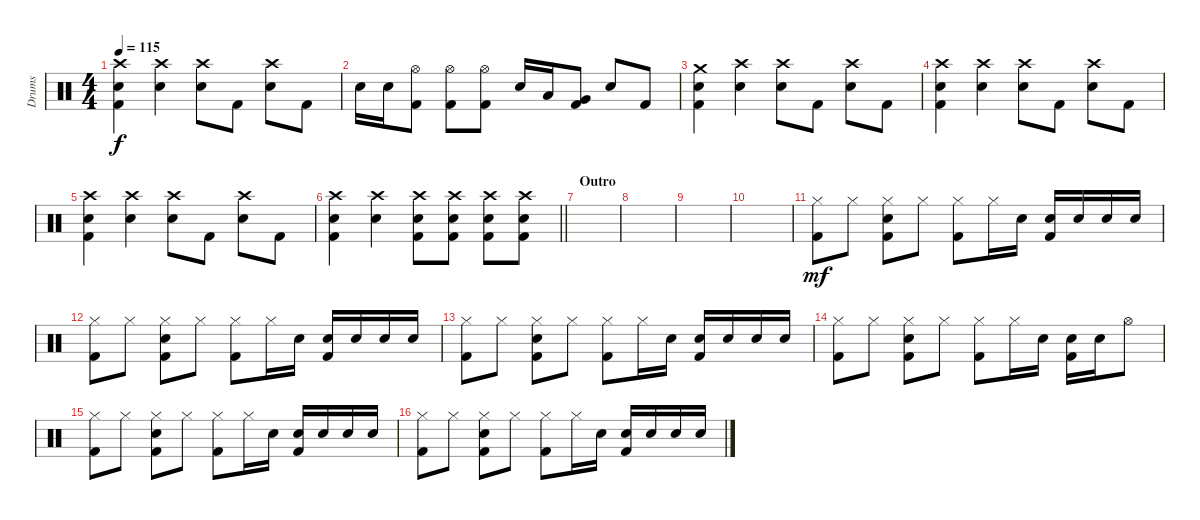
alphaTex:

\track ("Drums" "Drums") {instrument percussion}
\staff {score}
\articulation defaults
\ts (4 4)
\tempo 115
\clef neutral
\ks c
("Crash high (hit)" "Electric Snare (hit)" "Kick (hit) 2").4{dy f} ("Crash high (hit)" "Electric Snare (hit)").4 ("Crash high (hit)" "Electric Snare (hit)").8 "Kick (hit) 2".8 ("Crash high (hit)" "Electric Snare (hit)").8 "Kick (hit) 2".8 |
"Electric Snare (hit)".16 "Electric Snare (hit)".16 ("Hi-Hat (open)" "Kick (hit) 2").8 ("Hi-Hat (open)" "Kick (hit) 2").8 ("Hi-Hat (open)" "Kick (hit) 2").8 "Electric Snare (hit)".16 "Low Tom (hit)".16 ("Very Low Tom (hit)" "Kick (hit) 2").8 "Electric Snare (hit)".8 "Kick (hit) 2".8 |
("Crash medium (hit)" "Electric Snare (hit)" "Kick (hit) 2").4 ("Crash high (hit)" "Electric Snare (hit)").4 ("Crash high (hit)" "Electric Snare (hit)").8 "Kick (hit) 2".8 ("Crash high (hit)" "Electric Snare (hit)").8 "Kick (hit) 2".8 |
("Crash high (hit)" "Electric Snare (hit)" "Kick (hit) 2").4 ("Crash high (hit)" "Electric Snare (hit)").4 ("Crash high (hit)" "Electric Snare (hit)").8 "Kick (hit) 2".8 ("Crash high (hit)" "Electric Snare (hit)").8 "Kick (hit) 2".8 |
("Crash high (hit)" "Electric Snare (hit)" "Kick (hit) 2").4 ("Crash high (hit)" "Electric Snare (hit)").4 ("Crash high (hit)" "Electric Snare (hit)").8 "Kick (hit) 2".8 ("Crash high (hit)" "Electric Snare (hit)").8 "Kick (hit) 2".8 |
\barLineRight lightlight
("Crash high (hit)" "Electric Snare (hit)" "Kick (hit) 2").4 ("Crash high (hit)" "Electric Snare (hit)").4 ("Crash high (hit)" "Electric Snare (hit)" "Kick (hit) 2").8 ("Crash high (hit)" "Electric Snare (hit)" "Kick (hit) 2").8 ("Crash high (hit)" "Electric Snare (hit)" "Kick (hit) 2").8 ("Crash high (hit)" "Electric Snare (hit)" "Kick (hit) 2").8 |
\section ("" "Outro")
|
|
|
|
("Hi-Hat (closed)" "Kick (hit) 2").8{dy mf} "Hi-Hat (closed)".8 ("Hi-Hat (closed)" "Electric Snare (hit)" "Kick (hit) 2").8 "Hi-Hat (closed)".8 ("Hi-Hat (closed)" "Kick (hit) 2").8 "Hi-Hat (closed)".16 "Electric Snare (hit)".16 ("Electric Snare (hit)" "Kick (hit) 2").16 "Electric Snare (hit)".16 "Electric Snare (hit)".16 "Electric Snare (hit)".16 |
("Hi-Hat (closed)" "Kick (hit) 2").8 "Hi-Hat (closed)".8 ("Hi-Hat (closed)" "Electric Snare (hit)" "Kick (hit) 2").8 "Hi-Hat (closed)".8 ("Hi-Hat (closed)" "Kick (hit) 2").8 "Hi-Hat (closed)".16 "Electric Snare (hit)".16 ("Electric Snare (hit)" "Kick (hit) 2").16 "Electric Snare (hit)".16 "Electric Snare (hit)".16 "Electric Snare (hit)".16 |
("Hi-Hat (closed)" "Kick (hit) 2").8 "Hi-Hat (closed)".8 ("Hi-Hat (closed)" "Electric Snare (hit)" "Kick (hit) 2").8 "Hi-Hat (closed)".8 ("Hi-Hat (closed)" "Kick (hit) 2").8 "Hi-Hat (closed)".16 "Electric Snare (hit)".16 ("Electric Snare (hit)" "Kick (hit) 2").16 "Electric Snare (hit)".16 "Electric Snare (hit)".16 "Electric Snare (hit)".16 |
("Hi-Hat (closed)" "Kick (hit) 2").8 "Hi-Hat (closed)".8 ("Hi-Hat (closed)" "Electric Snare (hit)" "Kick (hit) 2").8 "Hi-Hat (closed)".8 ("Hi-Hat (closed)" "Kick (hit) 2").8 "Hi-Hat (closed)".16 "Electric Snare (hit)".16 ("Electric Snare (hit)" "Kick (hit) 2").16 "Electric Snare (hit)".16 "Hi-Hat (open)".8 |
("Hi-Hat (closed)" "Kick (hit) 2").8 "Hi-Hat (closed)".8 ("Hi-Hat (closed)" "Electric Snare (hit)" "Kick (hit) 2").8 "Hi-Hat (closed)".8 ("Hi-Hat (closed)" "Kick (hit) 2").8 "Hi-Hat (closed)".16 "Electric Snare (hit)".16 ("Electric Snare (hit)" "Kick (hit) 2").16 "Electric Snare (hit)".16 "Electric Snare (hit)".16 "Electric Snare (hit)".16 |
("Hi-Hat (closed)" "Kick (hit) 2").8 "Hi-Hat (closed)".8 ("Hi-Hat (closed)" "Electric Snare (hit)" "Kick (hit) 2").8 "Hi-Hat (closed)".8 ("Hi-Hat (closed)" "Kick (hit) 2").8 "Hi-Hat (closed)".16 "Electric Snare (hit)".16 ("Electric Snare (hit)" "Kick (hit) 2").16 "Electric Snare (hit)".16 "Electric Snare (hit)".16 "Electric Snare (hit)".16
